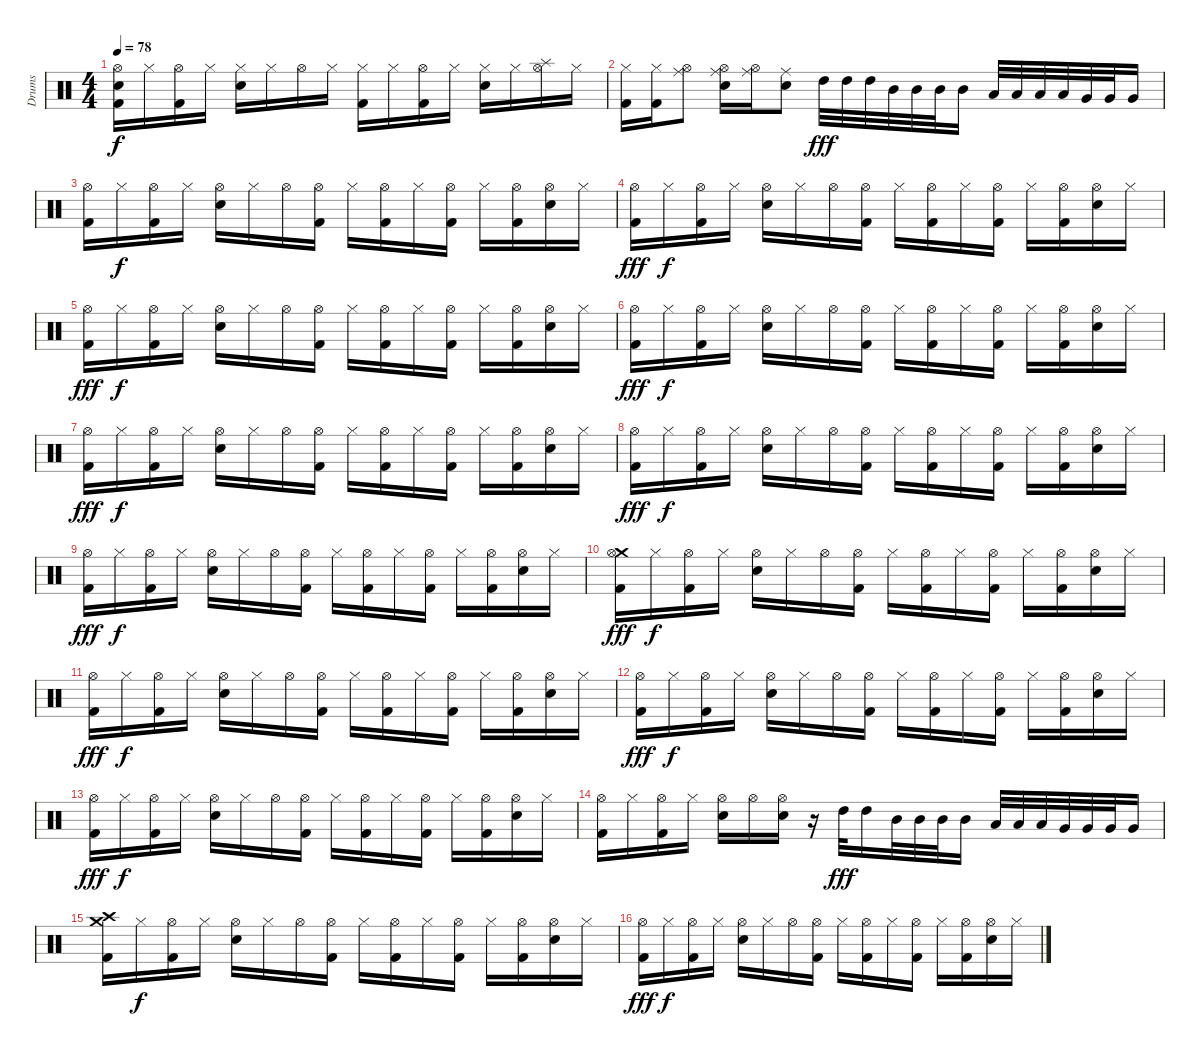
\track ("Drums" "Drums") {instrument percussion}
\staff {score}
\articulation defaults
\ts (4 4)
\tempo 78
\clef neutral
\ks c
("Snare (hit)"{t} "Hi-Hat (open)" "Kick (hit) 2").16{dy f} "Hi-Hat (closed)".16 ("Hi-Hat (open)" "Kick (hit) 2").16 "Hi-Hat (closed)".16 ("Hi-Hat (closed)" "Snare (hit) 2").16 "Hi-Hat (closed)".16 "Hi-Hat (open)".16 "Hi-Hat (closed)".16 ("Hi-Hat (closed)" "Kick (hit) 2").16 "Hi-Hat (closed)".16 ("Hi-Hat (open)" "Kick (hit) 2").16 "Hi-Hat (closed)".16 ("Hi-Hat (closed)" "Snare (hit) 2").16 "Hi-Hat (closed)".16 ("Splash (hit)" "Hi-Hat (open)").16 "Hi-Hat (closed)".16 |
("Hi-Hat (closed)" "Kick (hit) 2").16 ("Hi-Hat (closed)" "Kick (hit) 2").16 ("Ride (middle)" "Hi-Hat (open)").8 ("Ride (middle)" "Hi-Hat (open)" "Snare (hit) 2").16 ("Ride (middle)" "Hi-Hat (open)").16 ("Ride (middle)" "Snare (hit) 2").8 "High Tom (hit)".32{dy fff} "High Tom (hit)".32 "High Tom (hit)".32 "Mid Tom (hit)".32 "Mid Tom (hit)".32 "Mid Tom (hit)".32 "Mid Tom (hit)".16 "Low Tom (hit)".32 "Low Tom (hit)".32 "Low Tom (hit)".32 "Low Tom (hit)".32 "Very Low Tom (hit)".32 "Very Low Tom (hit)".32 "Very Low Tom (hit)".16 |
("Hi-Hat (open)" "Kick (hit) 2").16 "Hi-Hat (closed)".16{dy f} ("Hi-Hat (open)" "Kick (hit) 2").16 "Hi-Hat (closed)".16 ("Hi-Hat (open)" "Snare (hit) 2").16 "Hi-Hat (closed)".16 "Hi-Hat (open)".16 ("Hi-Hat (open)" "Kick (hit) 2").16 "Hi-Hat (closed)".16 ("Hi-Hat (open)" "Kick (hit) 2").16 "Hi-Hat (closed)".16 ("Hi-Hat (open)" "Kick (hit) 2").16 "Hi-Hat (closed)".16 ("Hi-Hat (open)" "Kick (hit) 2").16 ("Hi-Hat (open)" "Snare (hit) 2").16 "Hi-Hat (closed)".16 |
("Hi-Hat (open)" "Kick (hit) 2").16{dy fff} "Hi-Hat (closed)".16{dy f} ("Hi-Hat (open)" "Kick (hit) 2").16 "Hi-Hat (closed)".16 ("Hi-Hat (open)" "Snare (hit) 2").16 "Hi-Hat (closed)".16 "Hi-Hat (open)".16 ("Hi-Hat (open)" "Kick (hit) 2").16 "Hi-Hat (closed)".16 ("Hi-Hat (open)" "Kick (hit) 2").16 "Hi-Hat (closed)".16 ("Hi-Hat (open)" "Kick (hit) 2").16 "Hi-Hat (closed)".16 ("Hi-Hat (open)" "Kick (hit) 2").16 ("Hi-Hat (open)" "Snare (hit) 2").16 "Hi-Hat (closed)".16 |
("Hi-Hat (open)" "Kick (hit) 2").16{dy fff} "Hi-Hat (closed)".16{dy f} ("Hi-Hat (open)" "Kick (hit) 2").16 "Hi-Hat (closed)".16 ("Hi-Hat (open)" "Snare (hit) 2").16 "Hi-Hat (closed)".16 "Hi-Hat (open)".16 ("Hi-Hat (open)" "Kick (hit) 2").16 "Hi-Hat (closed)".16 ("Hi-Hat (open)" "Kick (hit) 2").16 "Hi-Hat (closed)".16 ("Hi-Hat (open)" "Kick (hit) 2").16 "Hi-Hat (closed)".16 ("Hi-Hat (open)" "Kick (hit) 2").16 ("Hi-Hat (open)" "Snare (hit) 2").16 "Hi-Hat (closed)".16 |
("Hi-Hat (open)" "Kick (hit) 2").16{dy fff} "Hi-Hat (closed)".16{dy f} ("Hi-Hat (open)" "Kick (hit) 2").16 "Hi-Hat (closed)".16 ("Hi-Hat (open)" "Snare (hit) 2").16 "Hi-Hat (closed)".16 "Hi-Hat (open)".16 ("Hi-Hat (open)" "Kick (hit) 2").16 "Hi-Hat (closed)".16 ("Hi-Hat (open)" "Kick (hit) 2").16 "Hi-Hat (closed)".16 ("Hi-Hat (open)" "Kick (hit) 2").16 "Hi-Hat (closed)".16 ("Hi-Hat (open)" "Kick (hit) 2").16 ("Hi-Hat (open)" "Snare (hit) 2").16 "Hi-Hat (closed)".16 |
("Hi-Hat (open)" "Kick (hit) 2").16{dy fff} "Hi-Hat (closed)".16{dy f} ("Hi-Hat (open)" "Kick (hit) 2").16 "Hi-Hat (closed)".16 ("Hi-Hat (open)" "Snare (hit) 2").16 "Hi-Hat (closed)".16 "Hi-Hat (open)".16 ("Hi-Hat (open)" "Kick (hit) 2").16 "Hi-Hat (closed)".16 ("Hi-Hat (open)" "Kick (hit) 2").16 "Hi-Hat (closed)".16 ("Hi-Hat (open)" "Kick (hit) 2").16 "Hi-Hat (closed)".16 ("Hi-Hat (open)" "Kick (hit) 2").16 ("Hi-Hat (open)" "Snare (hit) 2").16 "Hi-Hat (closed)".16 |
("Hi-Hat (open)" "Kick (hit) 2").16{dy fff} "Hi-Hat (closed)".16{dy f} ("Hi-Hat (open)" "Kick (hit) 2").16 "Hi-Hat (closed)".16 ("Hi-Hat (open)" "Snare (hit) 2").16 "Hi-Hat (closed)".16 "Hi-Hat (open)".16 ("Hi-Hat (open)" "Kick (hit) 2").16 "Hi-Hat (closed)".16 ("Hi-Hat (open)" "Kick (hit) 2").16 "Hi-Hat (closed)".16 ("Hi-Hat (open)" "Kick (hit) 2").16 "Hi-Hat (closed)".16 ("Hi-Hat (open)" "Kick (hit) 2").16 ("Hi-Hat (open)" "Snare (hit) 2").16 "Hi-Hat (closed)".16 |
("Hi-Hat (open)" "Kick (hit) 2").16{dy fff} "Hi-Hat (closed)".16{dy f} ("Hi-Hat (open)" "Kick (hit) 2").16 "Hi-Hat (closed)".16 ("Hi-Hat (open)" "Snare (hit) 2").16 "Hi-Hat (closed)".16 "Hi-Hat (open)".16 ("Hi-Hat (open)" "Kick (hit) 2").16 "Hi-Hat (closed)".16 ("Hi-Hat (open)" "Kick (hit) 2").16 "Hi-Hat (closed)".16 ("Hi-Hat (open)" "Kick (hit) 2").16 "Hi-Hat (closed)".16 ("Hi-Hat (open)" "Kick (hit) 2").16 ("Hi-Hat (open)" "Snare (hit) 2").16 "Hi-Hat (closed)".16 |
("Crash medium (hit)" "Hi-Hat (open)" "Kick (hit) 2").16{dy fff} "Hi-Hat (closed)".16{dy f} ("Hi-Hat (open)" "Kick (hit) 2").16 "Hi-Hat (closed)".16 ("Hi-Hat (open)" "Snare (hit) 2").16 "Hi-Hat (closed)".16 "Hi-Hat (open)".16 ("Hi-Hat (open)" "Kick (hit) 2").16 "Hi-Hat (closed)".16 ("Hi-Hat (open)" "Kick (hit) 2").16 "Hi-Hat (closed)".16 ("Hi-Hat (open)" "Kick (hit) 2").16 "Hi-Hat (closed)".16 ("Hi-Hat (open)" "Kick (hit) 2").16 ("Hi-Hat (open)" "Snare (hit) 2").16 "Hi-Hat (closed)".16 |
("Hi-Hat (open)" "Kick (hit) 2").16{dy fff} "Hi-Hat (closed)".16{dy f} ("Hi-Hat (open)" "Kick (hit) 2").16 "Hi-Hat (closed)".16 ("Hi-Hat (open)" "Snare (hit) 2").16 "Hi-Hat (closed)".16 "Hi-Hat (open)".16 ("Hi-Hat (open)" "Kick (hit) 2").16 "Hi-Hat (closed)".16 ("Hi-Hat (open)" "Kick (hit) 2").16 "Hi-Hat (closed)".16 ("Hi-Hat (open)" "Kick (hit) 2").16 "Hi-Hat (closed)".16 ("Hi-Hat (open)" "Kick (hit) 2").16 ("Hi-Hat (open)" "Snare (hit) 2").16 "Hi-Hat (closed)".16 |
("Hi-Hat (open)" "Kick (hit) 2").16{dy fff} "Hi-Hat (closed)".16{dy f} ("Hi-Hat (open)" "Kick (hit) 2").16 "Hi-Hat (closed)".16 ("Hi-Hat (open)" "Snare (hit) 2").16 "Hi-Hat (closed)".16 "Hi-Hat (open)".16 ("Hi-Hat (open)" "Kick (hit) 2").16 "Hi-Hat (closed)".16 ("Hi-Hat (open)" "Kick (hit) 2").16 "Hi-Hat (closed)".16 ("Hi-Hat (open)" "Kick (hit) 2").16 "Hi-Hat (closed)".16 ("Hi-Hat (open)" "Kick (hit) 2").16 ("Hi-Hat (open)" "Snare (hit) 2").16 "Hi-Hat (closed)".16 |
("Hi-Hat (open)" "Kick (hit) 2").16{dy fff} "Hi-Hat (closed)".16{dy f} ("Hi-Hat (open)" "Kick (hit) 2").16 "Hi-Hat (closed)".16 ("Hi-Hat (open)" "Snare (hit) 2").16 "Hi-Hat (closed)".16 "Hi-Hat (open)".16 ("Hi-Hat (open)" "Kick (hit) 2").16 "Hi-Hat (closed)".16 ("Hi-Hat (open)" "Kick (hit) 2").16 "Hi-Hat (closed)".16 ("Hi-Hat (open)" "Kick (hit) 2").16 "Hi-Hat (closed)".16 ("Hi-Hat (open)" "Kick (hit) 2").16 ("Hi-Hat (open)" "Snare (hit) 2").16 "Hi-Hat (closed)".16 |
("Hi-Hat (open)" "Kick (hit) 2").16 "Hi-Hat (closed)".16 ("Hi-Hat (open)" "Kick (hit) 2").16 "Hi-Hat (closed)".16 ("Hi-Hat (open)" "Snare (hit) 2").16 "Hi-Hat (open)".16 ("Hi-Hat (open)" "Snare (hit) 2").16 r.16 "High Tom (hit)".32{dy fff} "High Tom (hit)".16 "Mid Tom (hit)".32 "Mid Tom (hit)".32 "Mid Tom (hit)".32 "Mid Tom (hit)".16 "Low Tom (hit)".32 "Low Tom (hit)".32 "Low Tom (hit)".32 "Very Low Tom (hit)".32 "Very Low Tom (hit)".32 "Very Low Tom (hit)".32 "Very Low Tom (hit)".16 |
("Crash medium (hit)" "Crash high (hit)" "Kick (hit) 2").16 "Hi-Hat (closed)".16{dy f} ("Hi-Hat (open)" "Kick (hit) 2").16 "Hi-Hat (closed)".16 ("Hi-Hat (open)" "Snare (hit) 2").16 "Hi-Hat (closed)".16 "Hi-Hat (open)".16 ("Hi-Hat (open)" "Kick (hit) 2").16 "Hi-Hat (closed)".16 ("Hi-Hat (open)" "Kick (hit) 2").16 "Hi-Hat (closed)".16 ("Hi-Hat (open)" "Kick (hit) 2").16 "Hi-Hat (closed)".16 ("Hi-Hat (open)" "Kick (hit) 2").16 ("Hi-Hat (open)" "Snare (hit) 2").16 "Hi-Hat (closed)".16 |
("Hi-Hat (open)" "Kick (hit) 2").16{dy fff} "Hi-Hat (closed)".16{dy f} ("Hi-Hat (open)" "Kick (hit) 2").16 "Hi-Hat (closed)".16 ("Hi-Hat (open)" "Snare (hit) 2").16 "Hi-Hat (closed)".16 "Hi-Hat (open)".16 ("Hi-Hat (open)" "Kick (hit) 2").16 "Hi-Hat (closed)".16 ("Hi-Hat (open)" "Kick (hit) 2").16 "Hi-Hat (closed)".16 ("Hi-Hat (open)" "Kick (hit) 2").16 "Hi-Hat (closed)".16 ("Hi-Hat (open)" "Kick (hit) 2").16 ("Hi-Hat (open)" "Snare (hit) 2").16 "Hi-Hat (closed)".16
